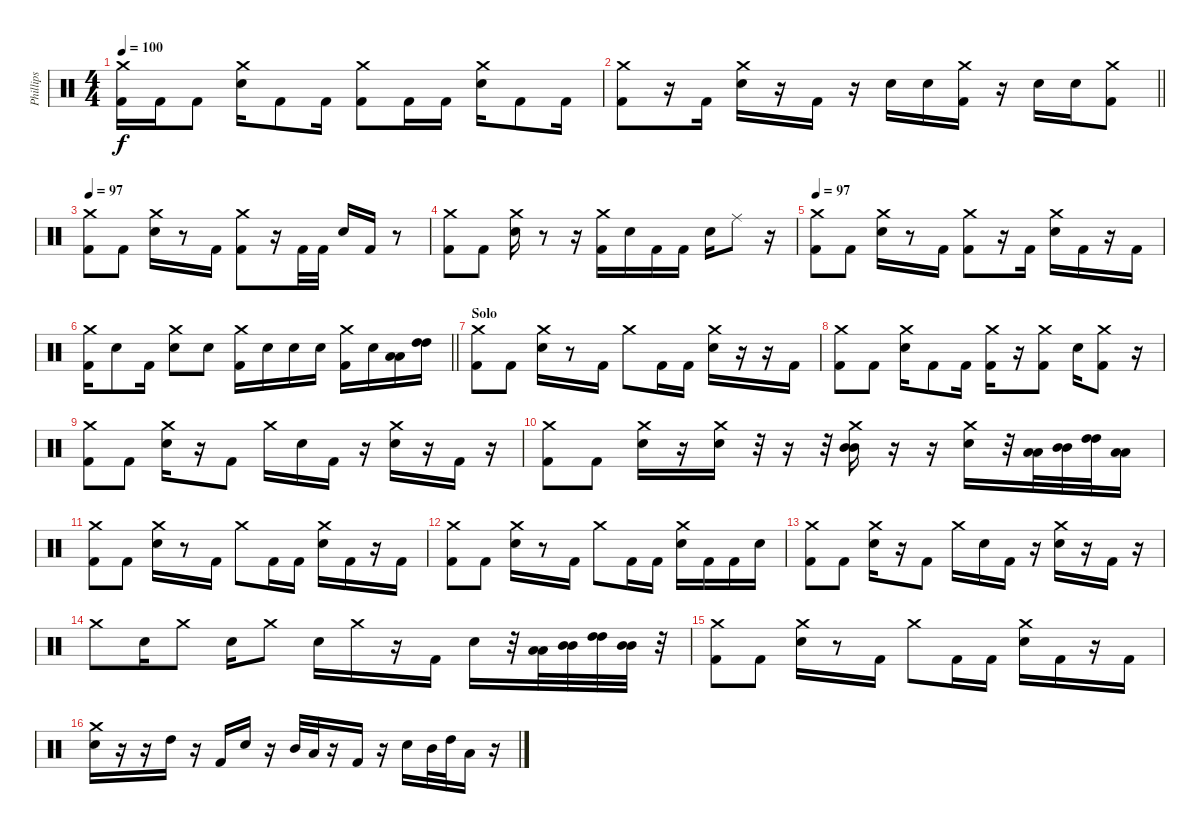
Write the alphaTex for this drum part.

\track ("Phillips" "Phillips") {instrument percussion}
\staff {score}
\articulation defaults
\ts (4 4)
\tempo 100
\clef neutral
\ks c
("Crash medium (hit)" "Kick (hit) 2").16{dy f} "Kick (hit) 2".16 "Kick (hit) 2".8 ("Crash medium (hit)" "Electric Snare (hit)").16 "Kick (hit) 2".8 "Kick (hit) 2".16 ("Crash medium (hit)" "Kick (hit) 2").8 "Kick (hit) 2".16 "Kick (hit) 2".16 ("Crash medium (hit)" "Electric Snare (hit)").16 "Kick (hit) 2".8 "Kick (hit) 2".16 |
\barLineRight lightlight
("Crash medium (hit)" "Kick (hit) 2").8 r.16 "Kick (hit) 2".16 ("Crash medium (hit)" "Electric Snare (hit)").16 r.16 "Kick (hit) 2".16 r.16 "Electric Snare (hit)".16 "Electric Snare (hit)".16 ("Crash medium (hit)" "Kick (hit) 2").16 r.16 "Electric Snare (hit)".16 "Electric Snare (hit)".16 ("Crash medium (hit)" "Kick (hit) 2").8 |
\section ("" "")
\tempo 97
("Crash medium (hit)" "Kick (hit) 2").8 "Kick (hit) 2".8 ("Crash medium (hit)" "Electric Snare (hit)").16 r.8 "Kick (hit) 2".16 ("Crash medium (hit)" "Kick (hit) 2").8 r.16 "Kick (hit) 2".32 "Kick (hit) 2".32 "Electric Snare (hit)".16 "Kick (hit) 2".16 r.8 |
("Crash medium (hit)" "Kick (hit) 2").8 "Kick (hit) 2".8 ("Crash medium (hit)" "Electric Snare (hit)").16 r.8 r.16 ("Crash medium (hit)" "Kick (hit) 2").16 "Electric Snare (hit)".16 "Kick (hit) 2".16 "Kick (hit) 2".16 "Electric Snare (hit)".16 "Ride (middle)".8 r.16 |
\tempo 97
("Crash medium (hit)" "Kick (hit) 2").8 "Kick (hit) 2".8 ("Crash medium (hit)" "Electric Snare (hit)").16 r.8 "Kick (hit) 2".16 ("Crash medium (hit)" "Kick (hit) 2").8 r.16 "Kick (hit) 2".16 ("Crash medium (hit)" "Electric Snare (hit)").16 "Kick (hit) 2".16 r.16 "Kick (hit) 2".16 |
\barLineRight lightlight
("Crash medium (hit)" "Kick (hit) 2").16 "Electric Snare (hit)".8 "Kick (hit) 2".16 ("Crash medium (hit)" "Electric Snare (hit)").8 "Electric Snare (hit)".8 ("Crash medium (hit)" "Kick (hit) 2").16 "Electric Snare (hit)".16 "Electric Snare (hit)".16 "Electric Snare (hit)".16 ("Crash medium (hit)" "Kick (hit) 2").16 "Electric Snare (hit)".16 ("Low Tom (hit)" "Low Tom (hit)").16 ("High Tom (hit)" "High Tom (hit)").16 |
\section ("" "Solo")
("Crash medium (hit)" "Kick (hit) 2").8 "Kick (hit) 2".8 ("Crash medium (hit)" "Electric Snare (hit)").16 r.8 "Kick (hit) 2".16 "Crash medium (hit)".8 "Kick (hit) 2".16 "Kick (hit) 2".16 ("Crash medium (hit)" "Electric Snare (hit)").16 r.16 r.16 "Kick (hit) 2".16 |
("Crash medium (hit)" "Kick (hit) 2").8 "Kick (hit) 2".8 ("Crash medium (hit)" "Electric Snare (hit)").16 "Kick (hit) 2".8 "Kick (hit) 2".16 ("Crash medium (hit)" "Kick (hit) 2").16 r.16 ("Crash medium (hit)" "Kick (hit) 2").8 "Electric Snare (hit)".16 ("Crash medium (hit)" "Kick (hit) 2").8 r.16 |
("Crash medium (hit)" "Kick (hit) 2").8 "Kick (hit) 2".8 ("Crash medium (hit)" "Electric Snare (hit)").16 r.16 "Kick (hit) 2".8 "Crash medium (hit)".16 "Electric Snare (hit)".16 "Kick (hit) 2".16 r.16 ("Crash medium (hit)" "Electric Snare (hit)").16 r.16 "Kick (hit) 2".16 r.16 |
("Crash medium (hit)" "Kick (hit) 2").8 "Kick (hit) 2".8 ("Crash medium (hit)" "Electric Snare (hit)").16 r.16 ("Crash medium (hit)" "Electric Snare (hit)").16 r.32 r.16 r.32 ("Crash medium (hit)" "Mid Tom (hit)" "Mid Tom (hit)").16 r.16 r.16 ("Crash medium (hit)" "Electric Snare (hit)").16 r.32 ("Low Tom (hit)" "Low Tom (hit)").32 ("Mid Tom (hit)" "Mid Tom (hit)").32 ("High Tom (hit)" "High Tom (hit)").32 ("Low Tom (hit)" "Low Tom (hit)").16 |
("Crash medium (hit)" "Kick (hit) 2").8 "Kick (hit) 2".8 ("Crash medium (hit)" "Electric Snare (hit)").16 r.8 "Kick (hit) 2".16 "Crash medium (hit)".8 "Kick (hit) 2".16 "Kick (hit) 2".16 ("Crash medium (hit)" "Electric Snare (hit)").16 "Kick (hit) 2".16 r.16 "Kick (hit) 2".16 |
("Crash medium (hit)" "Kick (hit) 2").8 "Kick (hit) 2".8 ("Crash medium (hit)" "Electric Snare (hit)").16 r.8 "Kick (hit) 2".16 "Crash medium (hit)".8 "Kick (hit) 2".16 "Kick (hit) 2".16 ("Crash medium (hit)" "Electric Snare (hit)").16 "Kick (hit) 2".16 "Kick (hit) 2".16 "Electric Snare (hit)".16 |
("Crash medium (hit)" "Kick (hit) 2").8 "Kick (hit) 2".8 ("Crash medium (hit)" "Electric Snare (hit)").16 r.16 "Kick (hit) 2".8 "Crash medium (hit)".16 "Electric Snare (hit)".16 "Kick (hit) 2".16 r.16 ("Crash medium (hit)" "Electric Snare (hit)").16 r.16 "Kick (hit) 2".16 r.16 |
"Crash medium (hit)".8 "Electric Snare (hit)".16 "Crash medium (hit)".8 "Electric Snare (hit)".16 "Crash medium (hit)".8 "Electric Snare (hit)".16 "Crash medium (hit)".16 r.16 "Kick (hit) 2".16 "Electric Snare (hit)".16 r.32 ("Low Tom (hit)" "Low Tom (hit)").32 ("Mid Tom (hit)" "Mid Tom (hit)").32 ("High Tom (hit)" "High Tom (hit)").32 ("Mid Tom (hit)" "Mid Tom (hit)").32 r.32 |
("Crash medium (hit)" "Kick (hit) 2").8 "Kick (hit) 2".8 ("Crash medium (hit)" "Electric Snare (hit)").16 r.8 "Kick (hit) 2".16 "Crash medium (hit)".8 "Kick (hit) 2".16 "Kick (hit) 2".16 ("Crash medium (hit)" "Electric Snare (hit)").16 "Kick (hit) 2".16 r.16 "Kick (hit) 2".16 |
("Crash medium (hit)" "Electric Snare (hit)").16 r.16 r.16 "High Tom (hit)".16 r.16 "Kick (hit) 2".16 "Electric Snare (hit)".16 r.16 "Mid Tom (hit)".32 "Low Tom (hit)".32 r.16 "Kick (hit) 2".16 r.16 "Electric Snare (hit)".16 "Mid Tom (hit)".32 "High Tom (hit)".32 "Low Tom (hit)".16 r.16
